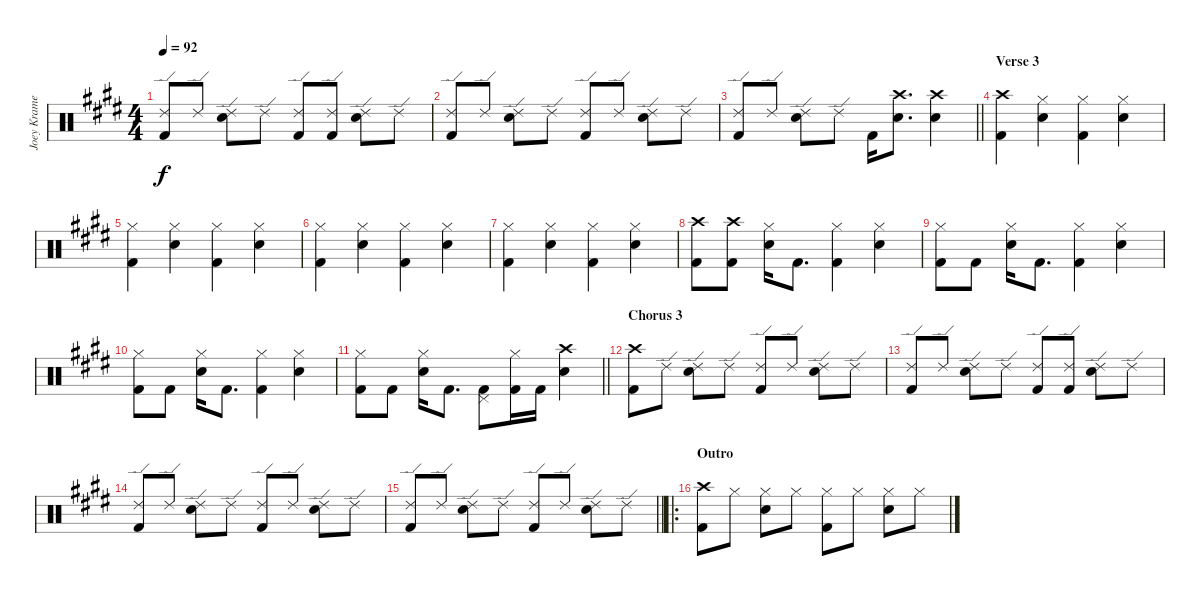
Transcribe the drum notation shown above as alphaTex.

\track ("Joey Kramer" "Joey Krame") {instrument percussion}
\staff {score}
\articulation defaults
\ts (4 4)
\tempo 92
\clef neutral
\ks c#minor
("Ride (edge) 2" "Kick (hit) 2").8{dy f} "Ride (edge) 2".8 ("Ride (edge) 2" "Electric Snare (hit)").8 "Ride (edge) 2".8 ("Ride (edge) 2" "Kick (hit) 2").8 ("Ride (edge) 2" "Kick (hit) 2").8 ("Ride (edge) 2" "Electric Snare (hit)").8 "Ride (edge) 2".8 |
\ks e
("Ride (edge) 2" "Kick (hit) 2").8 "Ride (edge) 2".8 ("Ride (edge) 2" "Electric Snare (hit)").8 "Ride (edge) 2".8 ("Ride (edge) 2" "Kick (hit) 2").8 "Ride (edge) 2".8 ("Ride (edge) 2" "Electric Snare (hit)").8 "Ride (edge) 2".8 |
\barLineRight lightlight
\ks c#minor
("Ride (edge) 2" "Kick (hit) 2").8 "Ride (edge) 2".8 ("Ride (edge) 2" "Electric Snare (hit)").8 "Ride (edge) 2".8 "Kick (hit) 2".16 ("Crash high (hit)" "Electric Snare (hit)").8{d} ("Crash high (hit)" "Electric Snare (hit)").4 |
\section ("" "Verse 3")
\ks e
("Crash high (hit)" "Kick (hit) 2").4 ("Hi-Hat (closed)" "Electric Snare (hit)").4 ("Hi-Hat (closed)" "Kick (hit) 2").4 ("Hi-Hat (closed)" "Electric Snare (hit)").4 |
\ks c#minor
("Hi-Hat (closed)" "Kick (hit) 2").4 ("Hi-Hat (closed)" "Electric Snare (hit)").4 ("Hi-Hat (closed)" "Kick (hit) 2").4 ("Hi-Hat (closed)" "Electric Snare (hit)").4 |
\ks e
("Hi-Hat (closed)" "Kick (hit) 2").4 ("Hi-Hat (closed)" "Electric Snare (hit)").4 ("Hi-Hat (closed)" "Kick (hit) 2").4 ("Hi-Hat (closed)" "Electric Snare (hit)").4 |
\ks c#minor
("Hi-Hat (closed)" "Kick (hit) 2").4 ("Hi-Hat (closed)" "Electric Snare (hit)").4 ("Hi-Hat (closed)" "Kick (hit) 2").4 ("Hi-Hat (closed)" "Electric Snare (hit)").4 |
\ks e
("Crash high (hit)" "Kick (hit) 2").8 ("Crash high (hit)" "Kick (hit) 2").8 ("Hi-Hat (closed)" "Electric Snare (hit)").16 "Kick (hit) 2".8{d} ("Hi-Hat (closed)" "Kick (hit) 2").4 ("Hi-Hat (closed)" "Electric Snare (hit)").4 |
\ks c#minor
("Hi-Hat (closed)" "Kick (hit) 2").8 "Kick (hit) 2".8 ("Hi-Hat (closed)" "Electric Snare (hit)").16 "Kick (hit) 2".8{d} ("Hi-Hat (closed)" "Kick (hit) 2").4 ("Hi-Hat (closed)" "Electric Snare (hit)").4 |
\ks e
("Hi-Hat (closed)" "Kick (hit) 2").8 "Kick (hit) 2".8 ("Hi-Hat (closed)" "Electric Snare (hit)").16 "Kick (hit) 2".8{d} ("Hi-Hat (closed)" "Kick (hit) 2").4 ("Hi-Hat (closed)" "Electric Snare (hit)").4 |
\barLineRight lightlight
\ks c#minor
("Hi-Hat (closed)" "Kick (hit) 2").8 "Kick (hit) 2".8 ("Hi-Hat (closed)" "Electric Snare (hit)").16 "Kick (hit) 2".8{d} ("Pedal Hi-Hat (hit)" "Kick (hit) 2").8 ("Hi-Hat (closed)" "Kick (hit) 2").16 "Kick (hit) 2".16 ("Crash high (hit)" "Electric Snare (hit)").4 |
\section ("" "Chorus 3")
\ks e
("Crash high (hit)" "Kick (hit) 2").8 "Ride (edge) 2".8 ("Ride (edge) 2" "Electric Snare (hit)").8 "Ride (edge) 2".8 ("Ride (edge) 2" "Kick (hit) 2").8 "Ride (edge) 2".8 ("Ride (edge) 2" "Electric Snare (hit)").8 "Ride (edge) 2".8 |
\ks c#minor
("Ride (edge) 2" "Kick (hit) 2").8 "Ride (edge) 2".8 ("Ride (edge) 2" "Electric Snare (hit)").8 "Ride (edge) 2".8 ("Ride (edge) 2" "Kick (hit) 2").8 ("Ride (edge) 2" "Kick (hit) 2").8 ("Ride (edge) 2" "Electric Snare (hit)").8 "Ride (edge) 2".8 |
\ks e
("Ride (edge) 2" "Kick (hit) 2").8 "Ride (edge) 2".8 ("Ride (edge) 2" "Electric Snare (hit)").8 "Ride (edge) 2".8 ("Ride (edge) 2" "Kick (hit) 2").8 "Ride (edge) 2".8 ("Ride (edge) 2" "Electric Snare (hit)").8 "Ride (edge) 2".8 |
\barLineRight lightlight
\ks c#minor
("Ride (edge) 2" "Kick (hit) 2").8 "Ride (edge) 2".8 ("Ride (edge) 2" "Electric Snare (hit)").8 "Ride (edge) 2".8 ("Ride (edge) 2" "Kick (hit) 2").8 "Ride (edge) 2".8 ("Ride (edge) 2" "Electric Snare (hit)").8 "Ride (edge) 2".8 |
\ro
\section ("" "Outro")
\ks e
("Crash high (hit)" "Kick (hit) 2").8 "Hi-Hat (closed)".8 ("Hi-Hat (closed)" "Electric Snare (hit)").8 "Hi-Hat (closed)".8 ("Hi-Hat (closed)" "Kick (hit) 2").8 "Hi-Hat (closed)".8 ("Hi-Hat (closed)" "Electric Snare (hit)").8 "Hi-Hat (closed)".8
